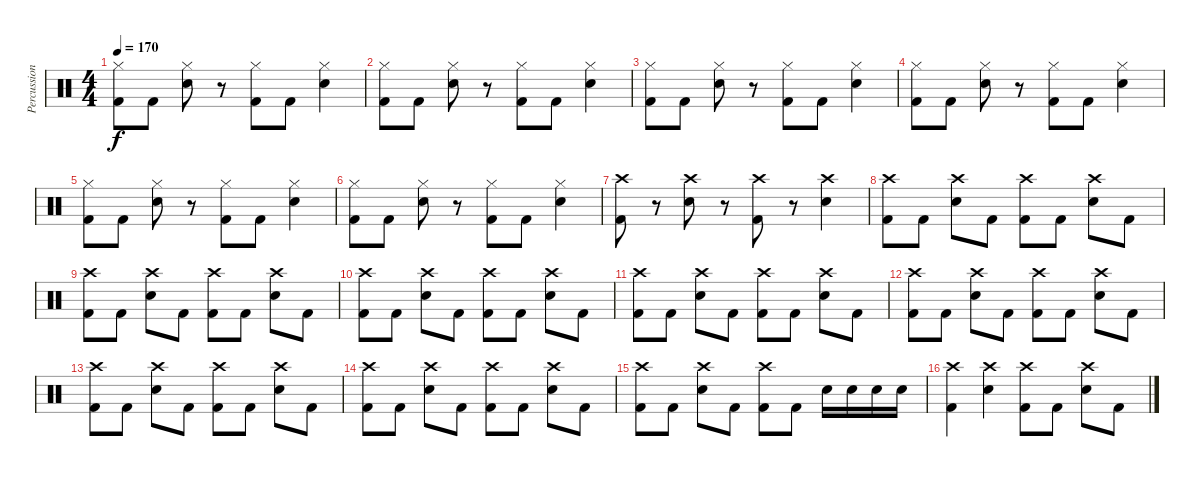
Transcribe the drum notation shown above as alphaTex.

\track ("Percussion" "Percussion") {instrument percussion}
\staff {score}
\articulation defaults
\ts (4 4)
\tempo 170
\clef neutral
\ks c
("Hi-Hat (closed)" "Kick (hit) 2").8{dy f} "Kick (hit) 2".8 ("Hi-Hat (closed)" "Snare (hit) 2").8 r.8 ("Hi-Hat (closed)" "Kick (hit) 2").8 "Kick (hit) 2".8 ("Hi-Hat (closed)" "Snare (hit) 2").4 |
("Hi-Hat (closed)" "Kick (hit) 2").8 "Kick (hit) 2".8 ("Hi-Hat (closed)" "Snare (hit) 2").8 r.8 ("Hi-Hat (closed)" "Kick (hit) 2").8 "Kick (hit) 2".8 ("Hi-Hat (closed)" "Snare (hit) 2").4 |
("Hi-Hat (closed)" "Kick (hit) 2").8 "Kick (hit) 2".8 ("Hi-Hat (closed)" "Snare (hit) 2").8 r.8 ("Hi-Hat (closed)" "Kick (hit) 2").8 "Kick (hit) 2".8 ("Hi-Hat (closed)" "Snare (hit) 2").4 |
("Hi-Hat (closed)" "Kick (hit) 2").8 "Kick (hit) 2".8 ("Hi-Hat (closed)" "Snare (hit) 2").8 r.8 ("Hi-Hat (closed)" "Kick (hit) 2").8 "Kick (hit) 2".8 ("Hi-Hat (closed)" "Snare (hit) 2").4 |
("Hi-Hat (closed)" "Kick (hit) 2").8 "Kick (hit) 2".8 ("Hi-Hat (closed)" "Snare (hit) 2").8 r.8 ("Hi-Hat (closed)" "Kick (hit) 2").8 "Kick (hit) 2".8 ("Hi-Hat (closed)" "Snare (hit) 2").4 |
("Hi-Hat (closed)" "Kick (hit) 2").8 "Kick (hit) 2".8 ("Hi-Hat (closed)" "Snare (hit) 2").8 r.8 ("Hi-Hat (closed)" "Kick (hit) 2").8 "Kick (hit) 2".8 ("Hi-Hat (closed)" "Snare (hit) 2").4 |
("Crash high (hit)" "Kick (hit) 2").8 r.8 ("Crash high (hit)" "Snare (hit) 2").8 r.8 ("Crash high (hit)" "Kick (hit) 2").8 r.8 ("Crash high (hit)" "Snare (hit) 2").4 |
("Crash high (hit)" "Kick (hit) 2").8 "Kick (hit) 2".8 ("Crash high (hit)" "Snare (hit) 2").8 "Kick (hit) 2".8 ("Crash high (hit)" "Kick (hit) 2").8 "Kick (hit) 2".8 ("Crash high (hit)" "Snare (hit) 2").8 "Kick (hit) 2".8 |
("Crash high (hit)" "Kick (hit) 2").8 "Kick (hit) 2".8 ("Crash high (hit)" "Snare (hit) 2").8 "Kick (hit) 2".8 ("Crash high (hit)" "Kick (hit) 2").8 "Kick (hit) 2".8 ("Crash high (hit)" "Snare (hit) 2").8 "Kick (hit) 2".8 |
("Crash high (hit)" "Kick (hit) 2").8 "Kick (hit) 2".8 ("Crash high (hit)" "Snare (hit) 2").8 "Kick (hit) 2".8 ("Crash high (hit)" "Kick (hit) 2").8 "Kick (hit) 2".8 ("Crash high (hit)" "Snare (hit) 2").8 "Kick (hit) 2".8 |
("Crash high (hit)" "Kick (hit) 2").8 "Kick (hit) 2".8 ("Crash high (hit)" "Snare (hit) 2").8 "Kick (hit) 2".8 ("Crash high (hit)" "Kick (hit) 2").8 "Kick (hit) 2".8 ("Crash high (hit)" "Snare (hit) 2").8 "Kick (hit) 2".8 |
("Crash high (hit)" "Kick (hit) 2").8 "Kick (hit) 2".8 ("Crash high (hit)" "Snare (hit) 2").8 "Kick (hit) 2".8 ("Crash high (hit)" "Kick (hit) 2").8 "Kick (hit) 2".8 ("Crash high (hit)" "Snare (hit) 2").8 "Kick (hit) 2".8 |
("Crash high (hit)" "Kick (hit) 2").8 "Kick (hit) 2".8 ("Crash high (hit)" "Snare (hit) 2").8 "Kick (hit) 2".8 ("Crash high (hit)" "Kick (hit) 2").8 "Kick (hit) 2".8 ("Crash high (hit)" "Snare (hit) 2").8 "Kick (hit) 2".8 |
("Crash high (hit)" "Kick (hit) 2").8 "Kick (hit) 2".8 ("Crash high (hit)" "Snare (hit) 2").8 "Kick (hit) 2".8 ("Crash high (hit)" "Kick (hit) 2").8 "Kick (hit) 2".8 ("Crash high (hit)" "Snare (hit) 2").8 "Kick (hit) 2".8 |
("Crash high (hit)" "Kick (hit) 2").8 "Kick (hit) 2".8 ("Crash high (hit)" "Snare (hit) 2").8 "Kick (hit) 2".8 ("Crash high (hit)" "Kick (hit) 2").8 "Kick (hit) 2".8 "Snare (hit) 2".16 "Snare (hit) 2".16 "Snare (hit) 2".16 "Snare (hit) 2".16 |
("Crash high (hit)" "Kick (hit) 2").4 ("Crash high (hit)" "Snare (hit) 2").4 ("Crash high (hit)" "Kick (hit) 2").8 "Kick (hit) 2".8 ("Crash high (hit)" "Snare (hit) 2").8 "Kick (hit) 2".8
